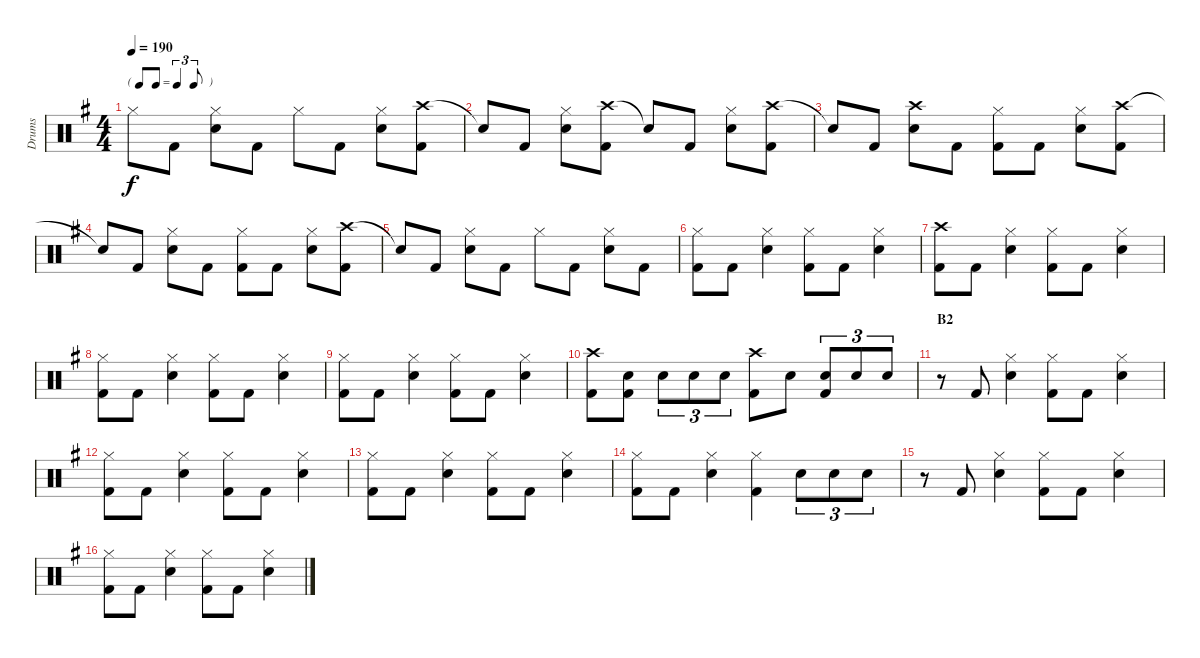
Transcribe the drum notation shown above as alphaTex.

\track ("Drums" "Drums") {instrument percussion}
\staff {score}
\articulation defaults
\ts (4 4)
\tf triplet8th
\tempo 190
\clef neutral
\ks g "Hi-Hat (closed)".8{dy f} "Kick (hit) 2".8
("Hi-Hat (closed)" "Snare (hit) 2").8 "Kick (hit) 2".8 "Hi-Hat (closed)".8 "Kick (hit) 2".8 ("Hi-Hat (closed)" "Snare (hit) 2").8 ("Crash high (hit)" "Kick (hit) 2").8 |
"Snare (hit)"{t}.8 "Kick (hit) 2".8 ("Hi-Hat (closed)" "Snare (hit) 2").8 ("Crash high (hit)" "Kick (hit) 2").8 "Snare (hit)"{t}.8 "Kick (hit) 2".8 ("Hi-Hat (closed)" "Snare (hit) 2").8 ("Crash high (hit)" "Kick (hit) 2").8 |
"Snare (hit)"{t}.8 "Kick (hit) 2".8 ("Crash high (hit)" "Snare (hit) 2").8 "Kick (hit) 2".8 ("Hi-Hat (closed)" "Kick (hit) 2").8 "Kick (hit) 2".8 ("Hi-Hat (closed)" "Snare (hit) 2").8 ("Crash high (hit)" "Kick (hit) 2").8 |
"Snare (hit)"{t}.8 "Kick (hit) 2".8 ("Hi-Hat (closed)" "Snare (hit) 2").8 "Kick (hit) 2".8 ("Hi-Hat (closed)" "Kick (hit) 2").8 "Kick (hit) 2".8 ("Hi-Hat (closed)" "Snare (hit) 2").8 ("Crash high (hit)" "Kick (hit) 2").8 |
"Snare (hit)"{t}.8 "Kick (hit) 2".8 ("Hi-Hat (closed)" "Snare (hit) 2").8 "Kick (hit) 2".8 "Hi-Hat (closed)".8 "Kick (hit) 2".8 ("Hi-Hat (closed)" "Snare (hit) 2").8 "Kick (hit) 2".8 |
("Hi-Hat (closed)" "Kick (hit) 2").8 "Kick (hit) 2".8 ("Hi-Hat (closed)" "Snare (hit) 2").4 ("Hi-Hat (closed)" "Kick (hit) 2").8 "Kick (hit) 2".8 ("Hi-Hat (closed)" "Snare (hit) 2").4 |
("Crash high (hit)" "Kick (hit) 2").8 "Kick (hit) 2".8 ("Hi-Hat (closed)" "Snare (hit) 2").4 ("Hi-Hat (closed)" "Kick (hit) 2").8 "Kick (hit) 2".8 ("Hi-Hat (closed)" "Snare (hit) 2").4 |
("Hi-Hat (closed)" "Kick (hit) 2").8 "Kick (hit) 2".8 ("Hi-Hat (closed)" "Snare (hit) 2").4 ("Hi-Hat (closed)" "Kick (hit) 2").8 "Kick (hit) 2".8 ("Hi-Hat (closed)" "Snare (hit) 2").4 |
("Hi-Hat (closed)" "Kick (hit) 2").8 "Kick (hit) 2".8 ("Hi-Hat (closed)" "Snare (hit) 2").4 ("Hi-Hat (closed)" "Kick (hit) 2").8 "Kick (hit) 2".8 ("Hi-Hat (closed)" "Snare (hit) 2").4 |
("Crash high (hit)" "Kick (hit) 2").8 ("Snare (hit) 2" "Kick (hit) 2").8 "Snare (hit) 2".8{tu (3 2)} "Snare (hit) 2".8{tu (3 2)} "Snare (hit) 2".8{tu (3 2)} ("Crash high (hit)" "Kick (hit) 2").8 "Snare (hit) 2".8 ("Snare (hit) 2" "Kick (hit) 2").8{tu (3 2)} "Snare (hit) 2".8{tu (3 2)} "Snare (hit) 2".8{tu (3 2)} |
\section ("" "B2")
r.8 "Kick (hit) 2".8 ("Hi-Hat (closed)" "Snare (hit) 2").4 ("Hi-Hat (closed)" "Kick (hit) 2").8 "Kick (hit) 2".8 ("Hi-Hat (closed)" "Snare (hit) 2").4 |
("Hi-Hat (closed)" "Kick (hit) 2").8 "Kick (hit) 2".8 ("Hi-Hat (closed)" "Snare (hit) 2").4 ("Hi-Hat (closed)" "Kick (hit) 2").8 "Kick (hit) 2".8 ("Hi-Hat (closed)" "Snare (hit) 2").4 |
("Hi-Hat (closed)" "Kick (hit) 2").8 "Kick (hit) 2".8 ("Hi-Hat (closed)" "Snare (hit) 2").4 ("Hi-Hat (closed)" "Kick (hit) 2").8 "Kick (hit) 2".8 ("Hi-Hat (closed)" "Snare (hit) 2").4 |
("Hi-Hat (closed)" "Kick (hit) 2").8 "Kick (hit) 2".8 ("Hi-Hat (closed)" "Snare (hit) 2").4 ("Hi-Hat (closed)" "Kick (hit) 2").4 "Snare (hit) 2".8{tu (3 2)} "Snare (hit) 2".8{tu (3 2)} "Snare (hit) 2".8{tu (3 2)} |
r.8 "Kick (hit) 2".8 ("Hi-Hat (closed)" "Snare (hit) 2").4 ("Hi-Hat (closed)" "Kick (hit) 2").8 "Kick (hit) 2".8 ("Hi-Hat (closed)" "Snare (hit) 2").4 |
("Hi-Hat (closed)" "Kick (hit) 2").8 "Kick (hit) 2".8 ("Hi-Hat (closed)" "Snare (hit) 2").4 ("Hi-Hat (closed)" "Kick (hit) 2").8 "Kick (hit) 2".8 ("Hi-Hat (closed)" "Snare (hit) 2").4
